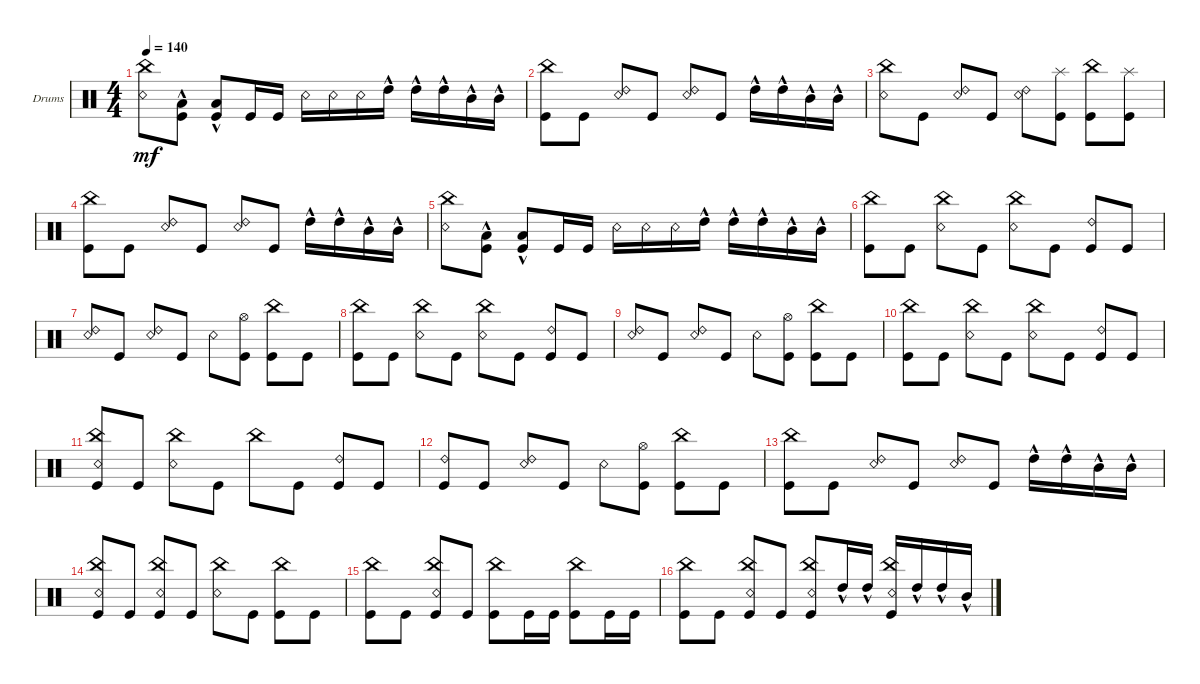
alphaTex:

\defaultSystemsLayout 4
\bracketExtendMode groupsimilarinstruments
\firstSystemTrackNameOrientation horizontal
\otherSystemsTrackNameOrientation horizontal
\track ("Drumkit" "Drums") {instrument percussion}
\staff {score}
\articulation defaults
\ts (4 4)
\tempo 140
\clef neutral
\ks c
("Snare (rim shot)" "China (hit)").8{dy mf} ("Kick (hit)"{hac} "Low Tom (hit)"{hac}).8 ("Kick (hit)"{hac} "Low Tom (hit)"{hac}).8 "Kick (hit)".16 "Kick (hit)".16 "Snare (rim shot)".16 "Snare (rim shot)".16 "Snare (rim shot)".16 "High Tom (hit)"{hac}.16 "High Tom (hit)"{hac}.16 "High Tom (hit)"{hac}.16 "Mid Tom (hit)"{hac}.16 "Mid Tom (hit)"{hac}.16 |
("China (hit)" "Kick (hit)").8 "Kick (hit)".8 ("Snare (rim shot)" "Ride (bell) 2").8 "Kick (hit)".8 ("Snare (rim shot)" "Ride (bell) 2").8 "Kick (hit)".8 "High Tom (hit)"{hac}.16 "High Tom (hit)"{hac}.16 "Mid Tom (hit)"{hac}.16 "Mid Tom (hit)"{hac}.16 |
("China (hit)" "Snare (rim shot)").8 "Kick (hit)".8 ("Snare (rim shot)" "Ride (bell) 2").8 "Kick (hit)".8 ("Snare (rim shot)" "Ride (bell) 2").8 ("Kick (hit)" "Splash (hit)").8 ("China (hit)" "Kick (hit)").8 ("Kick (hit)" "Splash (hit)").8 |
("China (hit)" "Kick (hit)").8 "Kick (hit)".8 ("Snare (rim shot)" "Ride (bell) 2").8 "Kick (hit)".8 ("Snare (rim shot)" "Ride (bell) 2").8 "Kick (hit)".8 "High Tom (hit)"{hac}.16 "High Tom (hit)"{hac}.16 "Mid Tom (hit)"{hac}.16 "Mid Tom (hit)"{hac}.16 |
("Snare (rim shot)" "China (hit)").8 ("Kick (hit)"{hac} "Low Tom (hit)"{hac}).8 ("Kick (hit)"{hac} "Low Tom (hit)"{hac}).8 "Kick (hit)".16 "Kick (hit)".16 "Snare (rim shot)".16 "Snare (rim shot)".16 "Snare (rim shot)".16 "High Tom (hit)"{hac}.16 "High Tom (hit)"{hac}.16 "High Tom (hit)"{hac}.16 "Mid Tom (hit)"{hac}.16 "Mid Tom (hit)"{hac}.16 |
("China (hit)" "Kick (hit)").8 "Kick (hit)".8 ("Snare (rim shot)" "China (hit)").8 "Kick (hit)".8 ("Snare (rim shot)" "China (hit)").8 "Kick (hit)".8 ("Kick (hit)" "Ride (bell) 2").8 "Kick (hit)".8 |
("Snare (rim shot)" "Ride (bell) 2").8 "Kick (hit)".8 ("Snare (rim shot)" "Ride (bell) 2").8 "Kick (hit)".8 "Snare (rim shot)".8 ("Hi-Hat (open)" "Kick (hit)").8 ("China (hit)" "Kick (hit)").8 "Kick (hit)".8 |
("China (hit)" "Kick (hit)").8 "Kick (hit)".8 ("Snare (rim shot)" "China (hit)").8 "Kick (hit)".8 ("Snare (rim shot)" "China (hit)").8 "Kick (hit)".8 ("Kick (hit)" "Ride (bell) 2").8 "Kick (hit)".8 |
("Snare (rim shot)" "Ride (bell) 2").8 "Kick (hit)".8 ("Snare (rim shot)" "Ride (bell) 2").8 "Kick (hit)".8 "Snare (rim shot)".8 ("Hi-Hat (open)" "Kick (hit)").8 ("China (hit)" "Kick (hit)").8 "Kick (hit)".8 |
("China (hit)" "Kick (hit)").8 "Kick (hit)".8 ("Snare (rim shot)" "China (hit)").8 "Kick (hit)".8 ("Snare (rim shot)" "China (hit)").8 "Kick (hit)".8 ("Kick (hit)" "Ride (bell) 2").8 "Kick (hit)".8 |
("China (hit)" "Kick (hit)" "Snare (rim shot)").8 "Kick (hit)".8 ("China (hit)" "Snare (rim shot)").8 "Kick (hit)".8 "China (hit)".8 "Kick (hit)".8 ("Kick (hit)" "Ride (bell) 2").8 "Kick (hit)".8 |
("Ride (bell) 2" "Kick (hit)").8 "Kick (hit)".8 ("Snare (rim shot)" "Ride (bell) 2").8 "Kick (hit)".8 "Snare (rim shot)".8 ("Hi-Hat (open)" "Kick (hit)").8 ("China (hit)" "Kick (hit)").8 "Kick (hit)".8 |
("China (hit)" "Kick (hit)").8 "Kick (hit)".8 ("Snare (rim shot)" "Ride (bell) 2").8 "Kick (hit)".8 ("Snare (rim shot)" "Ride (bell) 2").8 "Kick (hit)".8 "High Tom (hit)"{hac}.16 "High Tom (hit)"{hac}.16 "Mid Tom (hit)"{hac}.16 "Mid Tom (hit)"{hac}.16 |
("China (hit)" "Snare (rim shot)" "Kick (hit)").8 "Kick (hit)".8 ("Snare (rim shot)" "China (hit)" "Kick (hit)").8 "Kick (hit)".8 ("Snare (rim shot)" "China (hit)").8 "Kick (hit)".8 ("Kick (hit)" "China (hit)").8 "Kick (hit)".8 |
("Kick (hit)" "China (hit)").8 "Kick (hit)".8 ("Kick (hit)" "China (hit)" "Snare (rim shot)").8 "Kick (hit)".8 ("Kick (hit)" "China (hit)").8 "Kick (hit)".16 "Kick (hit)".16 ("Kick (hit)" "China (hit)").8 "Kick (hit)".16 "Kick (hit)".16 |
("Kick (hit)" "China (hit)").8 "Kick (hit)".8 ("Kick (hit)" "Snare (rim shot)" "China (hit)").8 "Kick (hit)".8 ("Kick (hit)" "Snare (rim shot)" "China (hit)").8 "High Tom (hit)"{hac}.16 "High Tom (hit)"{hac}.16 ("Snare (rim shot)" "China (hit)" "Kick (hit)").16 "High Tom (hit)"{hac}.16 "High Tom (hit)"{hac}.16 "Mid Tom (hit)"{hac}.16
